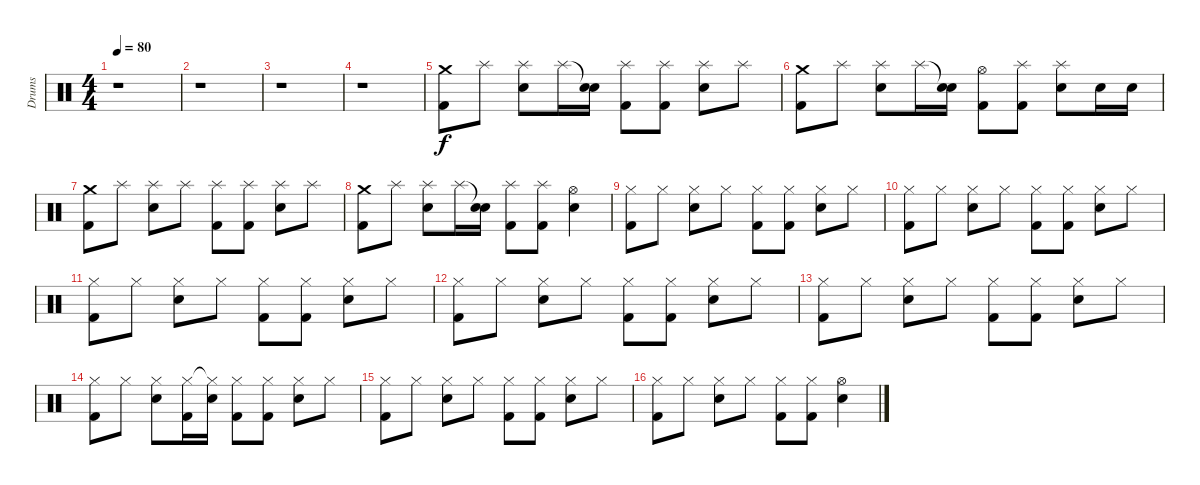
\track ("Drums" "Drums") {instrument percussion}
\staff {score}
\articulation defaults
\ts (4 4)
\tempo 80
\clef neutral
\ks c
r.1{dy f} |
r.1 |
r.1 |
r.1 |
("Crash medium (hit)" "Kick (hit) 2").8 "Splash (hit)".8 ("Splash (hit)" "Snare (hit) 2").8 "Splash (hit)".16 ("Snare (hit)"{t} "Snare (hit) 2").16 ("Splash (hit)" "Kick (hit) 2").8 ("Splash (hit)" "Kick (hit) 2").8 ("Splash (hit)" "Snare (hit) 2").8 "Splash (hit)".8 |
("Crash medium (hit)" "Kick (hit) 2").8 "Splash (hit)".8 ("Splash (hit)" "Snare (hit) 2").8 "Splash (hit)".16 ("Snare (hit)"{t} "Snare (hit) 2").16 ("Hi-Hat (open)" "Kick (hit) 2").8 ("Splash (hit)" "Kick (hit) 2").8 ("Splash (hit)" "Snare (hit) 2").8 "Snare (hit) 2".16 "Snare (hit) 2".16 |
("Crash medium (hit)" "Kick (hit) 2").8 "Splash (hit)".8 ("Splash (hit)" "Snare (hit) 2").8 "Splash (hit)".8 ("Splash (hit)" "Kick (hit) 2").8 ("Splash (hit)" "Kick (hit) 2").8 ("Splash (hit)" "Snare (hit) 2").8 "Splash (hit)".8 |
("Crash medium (hit)" "Kick (hit) 2").8 "Splash (hit)".8 ("Splash (hit)" "Snare (hit) 2").8 "Splash (hit)".16 ("Snare (hit)"{t} "Snare (hit) 2").16 ("Splash (hit)" "Kick (hit) 2").8 ("Splash (hit)" "Kick (hit) 2").8 ("Hi-Hat (open)" "Snare (hit) 2").4 |
("Hi-Hat (closed)" "Kick (hit) 2").8 "Hi-Hat (closed)".8 ("Hi-Hat (closed)" "Snare (hit) 2").8 "Hi-Hat (closed)".8 ("Hi-Hat (closed)" "Kick (hit) 2").8 ("Hi-Hat (closed)" "Kick (hit) 2").8 ("Hi-Hat (closed)" "Snare (hit) 2").8 "Hi-Hat (closed)".8 |
("Hi-Hat (closed)" "Kick (hit) 2").8 "Hi-Hat (closed)".8 ("Hi-Hat (closed)" "Snare (hit) 2").8 "Hi-Hat (closed)".8 ("Hi-Hat (closed)" "Kick (hit) 2").8 ("Hi-Hat (closed)" "Kick (hit) 2").8 ("Hi-Hat (closed)" "Snare (hit) 2").8 "Hi-Hat (closed)".8 |
("Hi-Hat (closed)" "Kick (hit) 2").8 "Hi-Hat (closed)".8 ("Hi-Hat (closed)" "Snare (hit) 2").8 "Hi-Hat (closed)".8 ("Hi-Hat (closed)" "Kick (hit) 2").8 ("Hi-Hat (closed)" "Kick (hit) 2").8 ("Hi-Hat (closed)" "Snare (hit) 2").8 "Hi-Hat (closed)".8 |
("Hi-Hat (closed)" "Kick (hit) 2").8 "Hi-Hat (closed)".8 ("Hi-Hat (closed)" "Snare (hit) 2").8 "Hi-Hat (closed)".8 ("Hi-Hat (closed)" "Kick (hit) 2").8 ("Hi-Hat (closed)" "Kick (hit) 2").8 ("Hi-Hat (closed)" "Snare (hit) 2").8 "Hi-Hat (closed)".8 |
("Hi-Hat (closed)" "Kick (hit) 2").8 "Hi-Hat (closed)".8 ("Hi-Hat (closed)" "Snare (hit) 2").8 "Hi-Hat (closed)".8 ("Hi-Hat (closed)" "Kick (hit) 2").8 ("Hi-Hat (closed)" "Kick (hit) 2").8 ("Hi-Hat (closed)" "Snare (hit) 2").8 "Hi-Hat (closed)".8 |
("Hi-Hat (closed)" "Kick (hit) 2").8 "Hi-Hat (closed)".8 ("Hi-Hat (closed)" "Snare (hit) 2").8 ("Hi-Hat (closed)" "Kick (hit) 2").16 ("Hi-Hat (closed)"{t} "Snare (hit) 2").16 ("Hi-Hat (closed)" "Kick (hit) 2").8 ("Hi-Hat (closed)" "Kick (hit) 2").8 ("Hi-Hat (closed)" "Snare (hit) 2").8 "Hi-Hat (closed)".8 |
("Hi-Hat (closed)" "Kick (hit) 2").8 "Hi-Hat (closed)".8 ("Hi-Hat (closed)" "Snare (hit) 2").8 "Hi-Hat (closed)".8 ("Hi-Hat (closed)" "Kick (hit) 2").8 ("Hi-Hat (closed)" "Kick (hit) 2").8 ("Hi-Hat (closed)" "Snare (hit) 2").8 "Hi-Hat (closed)".8 |
("Hi-Hat (closed)" "Kick (hit) 2").8 "Hi-Hat (closed)".8 ("Hi-Hat (closed)" "Snare (hit) 2").8 "Hi-Hat (closed)".8 ("Hi-Hat (closed)" "Kick (hit) 2").8 ("Hi-Hat (closed)" "Kick (hit) 2").8 ("Hi-Hat (open)" "Snare (hit) 2").4
